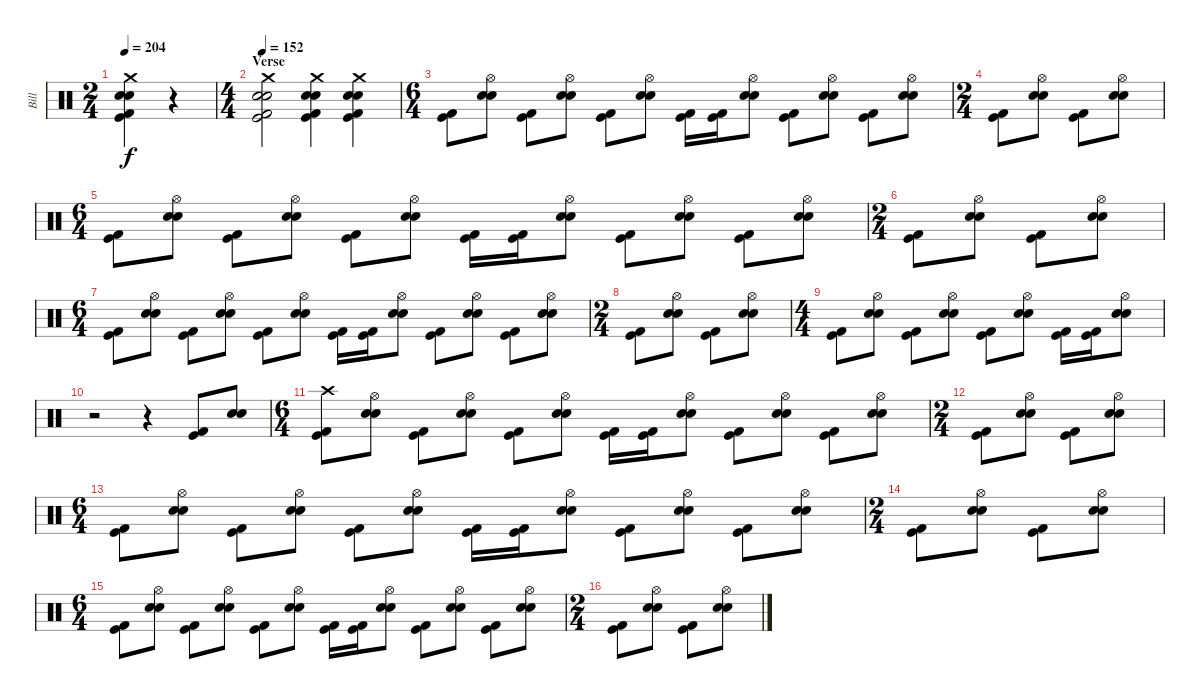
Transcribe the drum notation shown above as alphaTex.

\track ("Bill" "Bill") {instrument percussion}
\staff {score}
\articulation defaults
\ts (2 4)
\tempo 204
\clef neutral
\ks c
("Crash medium (hit)" "Snare (hit) 2" "Electric Snare (hit)" "Kick (hit)" "Kick (hit) 2").4{dy f} r.4 |
\ts (4 4)
\section ("" "Verse")
\tempo 152
("Crash medium (hit)" "Snare (hit) 2" "Electric Snare (hit)" "Kick (hit)" "Kick (hit) 2").2 ("Crash medium (hit)" "Snare (hit) 2" "Electric Snare (hit)" "Kick (hit)" "Kick (hit) 2").4 ("Crash medium (hit)" "Snare (hit) 2" "Electric Snare (hit)" "Kick (hit)" "Kick (hit) 2").4 |
\ts (6 4)
("Kick (hit)" "Kick (hit) 2").8 ("Hi-Hat (open)" "Snare (hit) 2" "Electric Snare (hit)").8 ("Kick (hit)" "Kick (hit) 2").8 ("Hi-Hat (open)" "Snare (hit) 2" "Electric Snare (hit)").8 ("Kick (hit)" "Kick (hit) 2").8 ("Hi-Hat (open)" "Snare (hit) 2" "Electric Snare (hit)").8 ("Kick (hit)" "Kick (hit) 2").16 ("Kick (hit)" "Kick (hit) 2").16 ("Hi-Hat (open)" "Snare (hit) 2" "Electric Snare (hit)").8 ("Kick (hit)" "Kick (hit) 2").8 ("Hi-Hat (open)" "Snare (hit) 2" "Electric Snare (hit)").8 ("Kick (hit)" "Kick (hit) 2").8 ("Hi-Hat (open)" "Snare (hit) 2" "Electric Snare (hit)").8 |
\ts (2 4)
("Kick (hit)" "Kick (hit) 2").8 ("Hi-Hat (open)" "Snare (hit) 2" "Electric Snare (hit)").8 ("Kick (hit)" "Kick (hit) 2").8 ("Hi-Hat (open)" "Snare (hit) 2" "Electric Snare (hit)").8 |
\ts (6 4)
("Kick (hit)" "Kick (hit) 2").8 ("Hi-Hat (open)" "Snare (hit) 2" "Electric Snare (hit)").8 ("Kick (hit)" "Kick (hit) 2").8 ("Hi-Hat (open)" "Snare (hit) 2" "Electric Snare (hit)").8 ("Kick (hit)" "Kick (hit) 2").8 ("Hi-Hat (open)" "Snare (hit) 2" "Electric Snare (hit)").8 ("Kick (hit)" "Kick (hit) 2").16 ("Kick (hit)" "Kick (hit) 2").16 ("Hi-Hat (open)" "Snare (hit) 2" "Electric Snare (hit)").8 ("Kick (hit)" "Kick (hit) 2").8 ("Hi-Hat (open)" "Snare (hit) 2" "Electric Snare (hit)").8 ("Kick (hit)" "Kick (hit) 2").8 ("Hi-Hat (open)" "Snare (hit) 2" "Electric Snare (hit)").8 |
\ts (2 4)
("Kick (hit)" "Kick (hit) 2").8 ("Hi-Hat (open)" "Snare (hit) 2" "Electric Snare (hit)").8 ("Kick (hit)" "Kick (hit) 2").8 ("Hi-Hat (open)" "Snare (hit) 2" "Electric Snare (hit)").8 |
\ts (6 4)
("Kick (hit)" "Kick (hit) 2").8 ("Hi-Hat (open)" "Snare (hit) 2" "Electric Snare (hit)").8 ("Kick (hit)" "Kick (hit) 2").8 ("Hi-Hat (open)" "Snare (hit) 2" "Electric Snare (hit)").8 ("Kick (hit)" "Kick (hit) 2").8 ("Hi-Hat (open)" "Snare (hit) 2" "Electric Snare (hit)").8 ("Kick (hit)" "Kick (hit) 2").16 ("Kick (hit)" "Kick (hit) 2").16 ("Hi-Hat (open)" "Snare (hit) 2" "Electric Snare (hit)").8 ("Kick (hit)" "Kick (hit) 2").8 ("Hi-Hat (open)" "Snare (hit) 2" "Electric Snare (hit)").8 ("Kick (hit)" "Kick (hit) 2").8 ("Hi-Hat (open)" "Snare (hit) 2" "Electric Snare (hit)").8 |
\ts (2 4)
("Kick (hit)" "Kick (hit) 2").8 ("Hi-Hat (open)" "Snare (hit) 2" "Electric Snare (hit)").8 ("Kick (hit)" "Kick (hit) 2").8 ("Hi-Hat (open)" "Snare (hit) 2" "Electric Snare (hit)").8 |
\ts (4 4)
("Kick (hit)" "Kick (hit) 2").8 ("Hi-Hat (open)" "Snare (hit) 2" "Electric Snare (hit)").8 ("Kick (hit)" "Kick (hit) 2").8 ("Hi-Hat (open)" "Snare (hit) 2" "Electric Snare (hit)").8 ("Kick (hit)" "Kick (hit) 2").8 ("Hi-Hat (open)" "Snare (hit) 2" "Electric Snare (hit)").8 ("Kick (hit)" "Kick (hit) 2").16 ("Kick (hit)" "Kick (hit) 2").16 ("Hi-Hat (open)" "Snare (hit) 2" "Electric Snare (hit)").8 |
r.2 r.4 ("Kick (hit)" "Kick (hit) 2").8 ("Snare (hit) 2" "Electric Snare (hit)").8 |
\ts (6 4)
("Crash high (hit)" "Kick (hit)" "Kick (hit) 2").8 ("Hi-Hat (open)" "Snare (hit) 2" "Electric Snare (hit)").8 ("Kick (hit)" "Kick (hit) 2").8 ("Hi-Hat (open)" "Snare (hit) 2" "Electric Snare (hit)").8 ("Kick (hit)" "Kick (hit) 2").8 ("Hi-Hat (open)" "Snare (hit) 2" "Electric Snare (hit)").8 ("Kick (hit)" "Kick (hit) 2").16 ("Kick (hit)" "Kick (hit) 2").16 ("Hi-Hat (open)" "Snare (hit) 2" "Electric Snare (hit)").8 ("Kick (hit)" "Kick (hit) 2").8 ("Hi-Hat (open)" "Snare (hit) 2" "Electric Snare (hit)").8 ("Kick (hit)" "Kick (hit) 2").8 ("Hi-Hat (open)" "Snare (hit) 2" "Electric Snare (hit)").8 |
\ts (2 4)
("Kick (hit)" "Kick (hit) 2").8 ("Hi-Hat (open)" "Snare (hit) 2" "Electric Snare (hit)").8 ("Kick (hit)" "Kick (hit) 2").8 ("Hi-Hat (open)" "Snare (hit) 2" "Electric Snare (hit)").8 |
\ts (6 4)
("Kick (hit)" "Kick (hit) 2").8 ("Hi-Hat (open)" "Snare (hit) 2" "Electric Snare (hit)").8 ("Kick (hit)" "Kick (hit) 2").8 ("Hi-Hat (open)" "Snare (hit) 2" "Electric Snare (hit)").8 ("Kick (hit)" "Kick (hit) 2").8 ("Hi-Hat (open)" "Snare (hit) 2" "Electric Snare (hit)").8 ("Kick (hit)" "Kick (hit) 2").16 ("Kick (hit)" "Kick (hit) 2").16 ("Hi-Hat (open)" "Snare (hit) 2" "Electric Snare (hit)").8 ("Kick (hit)" "Kick (hit) 2").8 ("Hi-Hat (open)" "Snare (hit) 2" "Electric Snare (hit)").8 ("Kick (hit)" "Kick (hit) 2").8 ("Hi-Hat (open)" "Snare (hit) 2" "Electric Snare (hit)").8 |
\ts (2 4)
("Kick (hit)" "Kick (hit) 2").8 ("Hi-Hat (open)" "Snare (hit) 2" "Electric Snare (hit)").8 ("Kick (hit)" "Kick (hit) 2").8 ("Hi-Hat (open)" "Snare (hit) 2" "Electric Snare (hit)").8 |
\ts (6 4)
("Kick (hit)" "Kick (hit) 2").8 ("Hi-Hat (open)" "Snare (hit) 2" "Electric Snare (hit)").8 ("Kick (hit)" "Kick (hit) 2").8 ("Hi-Hat (open)" "Snare (hit) 2" "Electric Snare (hit)").8 ("Kick (hit)" "Kick (hit) 2").8 ("Hi-Hat (open)" "Snare (hit) 2" "Electric Snare (hit)").8 ("Kick (hit)" "Kick (hit) 2").16 ("Kick (hit)" "Kick (hit) 2").16 ("Hi-Hat (open)" "Snare (hit) 2" "Electric Snare (hit)").8 ("Kick (hit)" "Kick (hit) 2").8 ("Hi-Hat (open)" "Snare (hit) 2" "Electric Snare (hit)").8 ("Kick (hit)" "Kick (hit) 2").8 ("Hi-Hat (open)" "Snare (hit) 2" "Electric Snare (hit)").8 |
\ts (2 4)
("Kick (hit)" "Kick (hit) 2").8 ("Hi-Hat (open)" "Snare (hit) 2" "Electric Snare (hit)").8 ("Kick (hit)" "Kick (hit) 2").8 ("Hi-Hat (open)" "Snare (hit) 2" "Electric Snare (hit)").8
